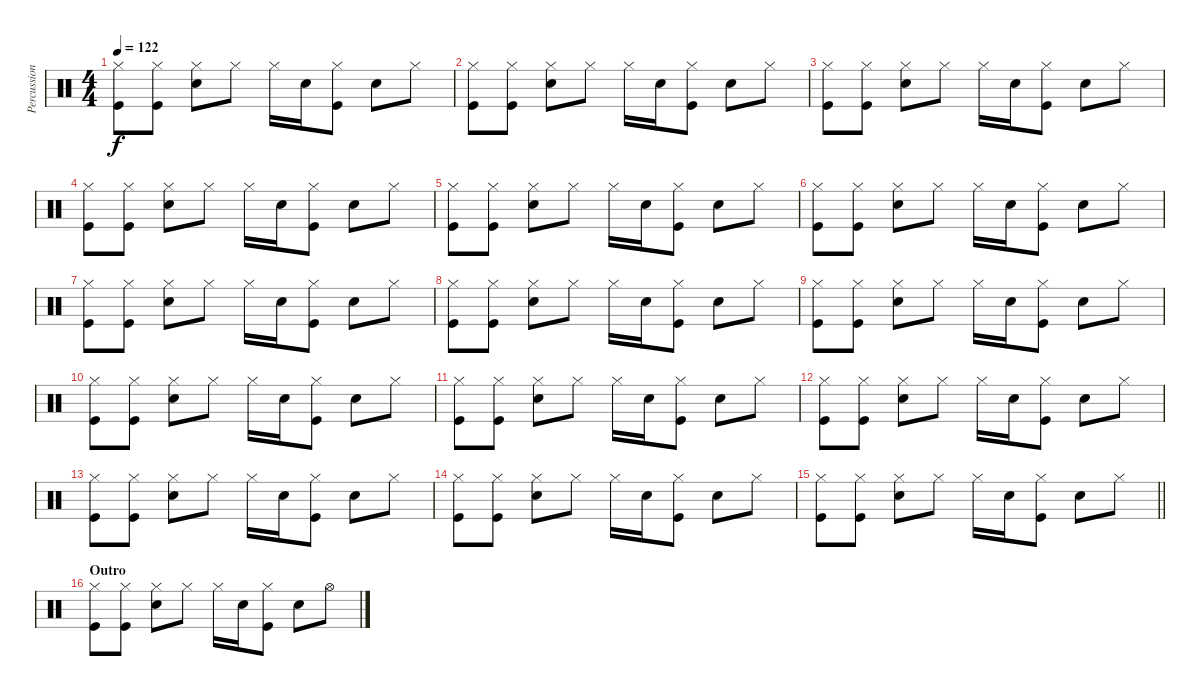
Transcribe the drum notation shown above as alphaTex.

\track ("Percussion" "Percussion") {instrument percussion}
\staff {score}
\articulation defaults
\ts (4 4)
\tempo 122
\clef neutral
\ks c
("Hi-Hat (closed)" "Kick (hit)").8{dy f} ("Hi-Hat (closed)" "Kick (hit)").8 ("Hi-Hat (closed)" "Snare (hit) 2").8 "Hi-Hat (closed)".8 "Hi-Hat (closed)".16 "Snare (hit) 2".16 ("Hi-Hat (closed)" "Kick (hit)").8 "Snare (hit) 2".8 "Hi-Hat (closed)".8 |
("Hi-Hat (closed)" "Kick (hit)").8 ("Hi-Hat (closed)" "Kick (hit)").8 ("Hi-Hat (closed)" "Snare (hit) 2").8 "Hi-Hat (closed)".8 "Hi-Hat (closed)".16 "Snare (hit) 2".16 ("Hi-Hat (closed)" "Kick (hit)").8 "Snare (hit) 2".8 "Hi-Hat (closed)".8 |
("Hi-Hat (closed)" "Kick (hit)").8 ("Hi-Hat (closed)" "Kick (hit)").8 ("Hi-Hat (closed)" "Snare (hit) 2").8 "Hi-Hat (closed)".8 "Hi-Hat (closed)".16 "Snare (hit) 2".16 ("Hi-Hat (closed)" "Kick (hit)").8 "Snare (hit) 2".8 "Hi-Hat (closed)".8 |
("Hi-Hat (closed)" "Kick (hit)").8 ("Hi-Hat (closed)" "Kick (hit)").8 ("Hi-Hat (closed)" "Snare (hit) 2").8 "Hi-Hat (closed)".8 "Hi-Hat (closed)".16 "Snare (hit) 2".16 ("Hi-Hat (closed)" "Kick (hit)").8 "Snare (hit) 2".8 "Hi-Hat (closed)".8 |
("Hi-Hat (closed)" "Kick (hit)").8 ("Hi-Hat (closed)" "Kick (hit)").8 ("Hi-Hat (closed)" "Snare (hit) 2").8 "Hi-Hat (closed)".8 "Hi-Hat (closed)".16 "Snare (hit) 2".16 ("Hi-Hat (closed)" "Kick (hit)").8 "Snare (hit) 2".8 "Hi-Hat (closed)".8 |
("Hi-Hat (closed)" "Kick (hit)").8 ("Hi-Hat (closed)" "Kick (hit)").8 ("Hi-Hat (closed)" "Snare (hit) 2").8 "Hi-Hat (closed)".8 "Hi-Hat (closed)".16 "Snare (hit) 2".16 ("Hi-Hat (closed)" "Kick (hit)").8 "Snare (hit) 2".8 "Hi-Hat (closed)".8 |
("Hi-Hat (closed)" "Kick (hit)").8 ("Hi-Hat (closed)" "Kick (hit)").8 ("Hi-Hat (closed)" "Snare (hit) 2").8 "Hi-Hat (closed)".8 "Hi-Hat (closed)".16 "Snare (hit) 2".16 ("Hi-Hat (closed)" "Kick (hit)").8 "Snare (hit) 2".8 "Hi-Hat (closed)".8 |
("Hi-Hat (closed)" "Kick (hit)").8 ("Hi-Hat (closed)" "Kick (hit)").8 ("Hi-Hat (closed)" "Snare (hit) 2").8 "Hi-Hat (closed)".8 "Hi-Hat (closed)".16 "Snare (hit) 2".16 ("Hi-Hat (closed)" "Kick (hit)").8 "Snare (hit) 2".8 "Hi-Hat (closed)".8 |
("Hi-Hat (closed)" "Kick (hit)").8 ("Hi-Hat (closed)" "Kick (hit)").8 ("Hi-Hat (closed)" "Snare (hit) 2").8 "Hi-Hat (closed)".8 "Hi-Hat (closed)".16 "Snare (hit) 2".16 ("Hi-Hat (closed)" "Kick (hit)").8 "Snare (hit) 2".8 "Hi-Hat (closed)".8 |
("Hi-Hat (closed)" "Kick (hit)").8 ("Hi-Hat (closed)" "Kick (hit)").8 ("Hi-Hat (closed)" "Snare (hit) 2").8 "Hi-Hat (closed)".8 "Hi-Hat (closed)".16 "Snare (hit) 2".16 ("Hi-Hat (closed)" "Kick (hit)").8 "Snare (hit) 2".8 "Hi-Hat (closed)".8 |
("Hi-Hat (closed)" "Kick (hit)").8 ("Hi-Hat (closed)" "Kick (hit)").8 ("Hi-Hat (closed)" "Snare (hit) 2").8 "Hi-Hat (closed)".8 "Hi-Hat (closed)".16 "Snare (hit) 2".16 ("Hi-Hat (closed)" "Kick (hit)").8 "Snare (hit) 2".8 "Hi-Hat (closed)".8 |
("Hi-Hat (closed)" "Kick (hit)").8 ("Hi-Hat (closed)" "Kick (hit)").8 ("Hi-Hat (closed)" "Snare (hit) 2").8 "Hi-Hat (closed)".8 "Hi-Hat (closed)".16 "Snare (hit) 2".16 ("Hi-Hat (closed)" "Kick (hit)").8 "Snare (hit) 2".8 "Hi-Hat (closed)".8 |
("Hi-Hat (closed)" "Kick (hit)").8 ("Hi-Hat (closed)" "Kick (hit)").8 ("Hi-Hat (closed)" "Snare (hit) 2").8 "Hi-Hat (closed)".8 "Hi-Hat (closed)".16 "Snare (hit) 2".16 ("Hi-Hat (closed)" "Kick (hit)").8 "Snare (hit) 2".8 "Hi-Hat (closed)".8 |
("Hi-Hat (closed)" "Kick (hit)").8 ("Hi-Hat (closed)" "Kick (hit)").8 ("Hi-Hat (closed)" "Snare (hit) 2").8 "Hi-Hat (closed)".8 "Hi-Hat (closed)".16 "Snare (hit) 2".16 ("Hi-Hat (closed)" "Kick (hit)").8 "Snare (hit) 2".8 "Hi-Hat (closed)".8 |
\barLineRight lightlight
("Hi-Hat (closed)" "Kick (hit)").8 ("Hi-Hat (closed)" "Kick (hit)").8 ("Hi-Hat (closed)" "Snare (hit) 2").8 "Hi-Hat (closed)".8 "Hi-Hat (closed)".16 "Snare (hit) 2".16 ("Hi-Hat (closed)" "Kick (hit)").8 "Snare (hit) 2".8 "Hi-Hat (closed)".8 |
\section ("" "Outro")
("Hi-Hat (closed)" "Kick (hit)").8 ("Hi-Hat (closed)" "Kick (hit)").8 ("Hi-Hat (closed)" "Snare (hit) 2").8 "Hi-Hat (closed)".8 "Hi-Hat (closed)".16 "Snare (hit) 2".16 ("Hi-Hat (closed)" "Kick (hit)").8 "Snare (hit) 2".8 "Hi-Hat (open)".8
